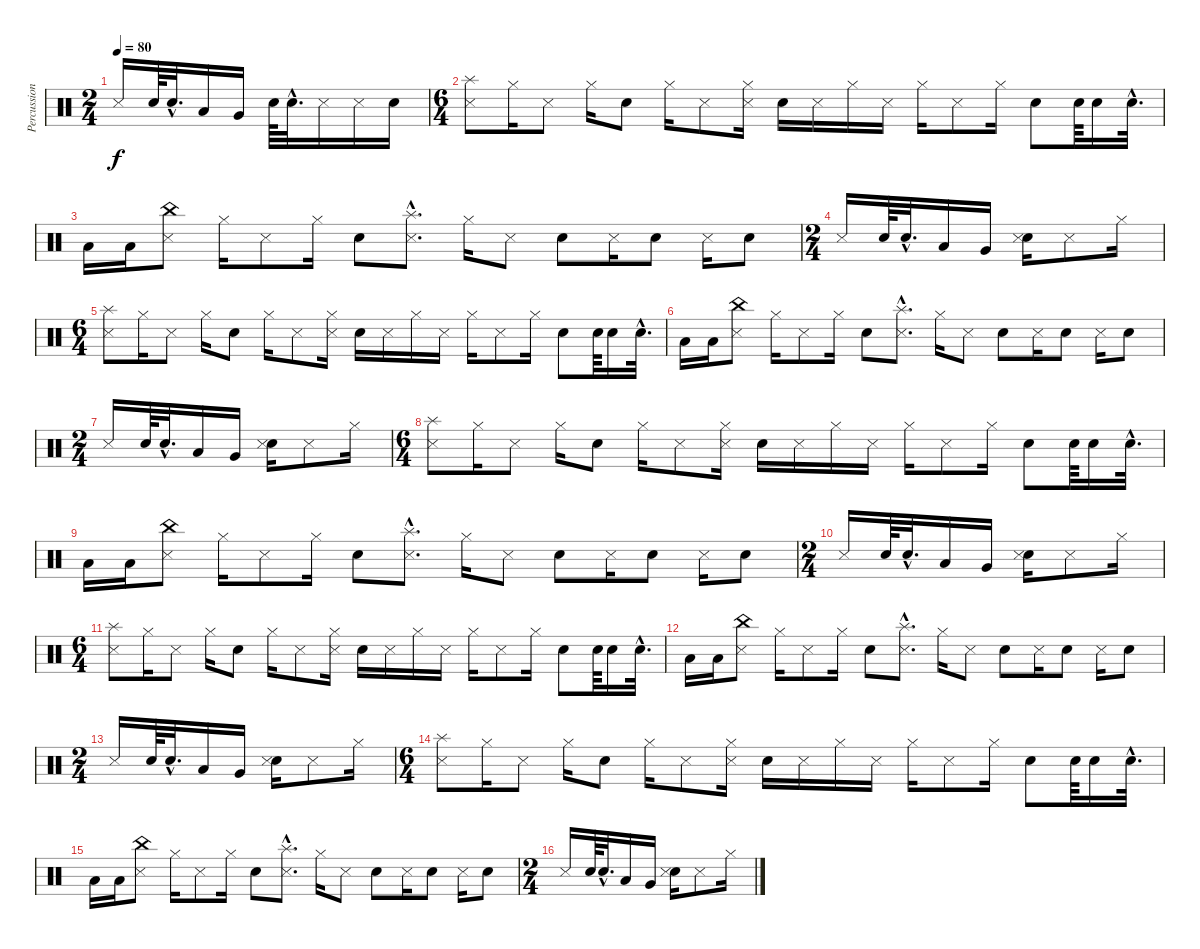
\track ("Percussions" "Percussion") {instrument percussion}
\staff {score}
\articulation defaults
\ts (2 4)
\tempo 80
\clef neutral
\ks c "Metronome (hit)".16{dy f} "Snare (hit) 2".64 "Snare (hit) 2"{hac}.32{d} "Low Floor Tom (hit)".16 "Very Low Tom (hit)".16 "Snare (hit) 2".64 "Snare (hit) 2"{hac}.32{d} "Metronome (hit)".16 "Metronome (hit)".16 "Snare (hit) 2".16
|
\ts (6 4)
("Splash (hit)" "Metronome (hit)").8 "Hi-Hat (closed)".16 "Metronome (hit)".8 "Hi-Hat (closed)".16 "Snare (hit) 2".8 "Hi-Hat (closed)".16 "Metronome (hit)".8 ("Hi-Hat (closed)" "Metronome (hit)").16 "Snare (hit) 2".16 "Metronome (hit)".16 "Hi-Hat (closed)".16 "Metronome (hit)".16 "Hi-Hat (closed)".16 "Metronome (hit)".8 "Hi-Hat (closed)".16 "Snare (hit) 2".8 "Snare (hit) 2".64 "Snare (hit) 2".16 "Snare (hit) 2"{hac}.32{d} |
"Low Floor Tom (hit)".16 "Low Floor Tom (hit)".16 ("China (hit)" "Metronome (hit)").8 "Hi-Hat (closed)".16 "Metronome (hit)".8 "Hi-Hat (closed)".16 "Snare (hit) 2".8 ("Splash (hit)"{hac} "Metronome (hit)"{hac}).8{d} "Hi-Hat (closed)".16 "Metronome (hit)".8 "Snare (hit) 2".8 "Metronome (hit)".16 "Snare (hit) 2".8 "Metronome (hit)".16 "Snare (hit) 2".8 |
\ts (2 4)
"Metronome (hit)".16 "Snare (hit) 2".64 "Snare (hit) 2"{hac}.32{d} "Low Floor Tom (hit)".16 "Very Low Tom (hit)".16 ("Snare (hit) 2" "Metronome (hit)").16 "Metronome (hit)".8 "Hi-Hat (closed)".16 |
\ts (6 4)
("Splash (hit)" "Metronome (hit)").8 "Hi-Hat (closed)".16 "Metronome (hit)".8 "Hi-Hat (closed)".16 "Snare (hit) 2".8 "Hi-Hat (closed)".16 "Metronome (hit)".8 ("Hi-Hat (closed)" "Metronome (hit)").16 "Snare (hit) 2".16 "Metronome (hit)".16 "Hi-Hat (closed)".16 "Metronome (hit)".16 "Hi-Hat (closed)".16 "Metronome (hit)".8 "Hi-Hat (closed)".16 "Snare (hit) 2".8 "Snare (hit) 2".64 "Snare (hit) 2".16 "Snare (hit) 2"{hac}.32{d} |
"Low Floor Tom (hit)".16 "Low Floor Tom (hit)".16 ("China (hit)" "Metronome (hit)").8 "Hi-Hat (closed)".16 "Metronome (hit)".8 "Hi-Hat (closed)".16 "Snare (hit) 2".8 ("Splash (hit)"{hac} "Metronome (hit)"{hac}).8{d} "Hi-Hat (closed)".16 "Metronome (hit)".8 "Snare (hit) 2".8 "Metronome (hit)".16 "Snare (hit) 2".8 "Metronome (hit)".16 "Snare (hit) 2".8 |
\ts (2 4)
"Metronome (hit)".16 "Snare (hit) 2".64 "Snare (hit) 2"{hac}.32{d} "Low Floor Tom (hit)".16 "Very Low Tom (hit)".16 ("Snare (hit) 2" "Metronome (hit)").16 "Metronome (hit)".8 "Hi-Hat (closed)".16 |
\ts (6 4)
("Splash (hit)" "Metronome (hit)").8 "Hi-Hat (closed)".16 "Metronome (hit)".8 "Hi-Hat (closed)".16 "Snare (hit) 2".8 "Hi-Hat (closed)".16 "Metronome (hit)".8 ("Hi-Hat (closed)" "Metronome (hit)").16 "Snare (hit) 2".16 "Metronome (hit)".16 "Hi-Hat (closed)".16 "Metronome (hit)".16 "Hi-Hat (closed)".16 "Metronome (hit)".8 "Hi-Hat (closed)".16 "Snare (hit) 2".8 "Snare (hit) 2".64 "Snare (hit) 2".16 "Snare (hit) 2"{hac}.32{d} |
"Low Floor Tom (hit)".16 "Low Floor Tom (hit)".16 ("China (hit)" "Metronome (hit)").8 "Hi-Hat (closed)".16 "Metronome (hit)".8 "Hi-Hat (closed)".16 "Snare (hit) 2".8 ("Splash (hit)"{hac} "Metronome (hit)"{hac}).8{d} "Hi-Hat (closed)".16 "Metronome (hit)".8 "Snare (hit) 2".8 "Metronome (hit)".16 "Snare (hit) 2".8 "Metronome (hit)".16 "Snare (hit) 2".8 |
\ts (2 4)
"Metronome (hit)".16 "Snare (hit) 2".64 "Snare (hit) 2"{hac}.32{d} "Low Floor Tom (hit)".16 "Very Low Tom (hit)".16 ("Snare (hit) 2" "Metronome (hit)").16 "Metronome (hit)".8 "Hi-Hat (closed)".16 |
\ts (6 4)
("Splash (hit)" "Metronome (hit)").8 "Hi-Hat (closed)".16 "Metronome (hit)".8 "Hi-Hat (closed)".16 "Snare (hit) 2".8 "Hi-Hat (closed)".16 "Metronome (hit)".8 ("Hi-Hat (closed)" "Metronome (hit)").16 "Snare (hit) 2".16 "Metronome (hit)".16 "Hi-Hat (closed)".16 "Metronome (hit)".16 "Hi-Hat (closed)".16 "Metronome (hit)".8 "Hi-Hat (closed)".16 "Snare (hit) 2".8 "Snare (hit) 2".64 "Snare (hit) 2".16 "Snare (hit) 2"{hac}.32{d} |
"Low Floor Tom (hit)".16 "Low Floor Tom (hit)".16 ("China (hit)" "Metronome (hit)").8 "Hi-Hat (closed)".16 "Metronome (hit)".8 "Hi-Hat (closed)".16 "Snare (hit) 2".8 ("Splash (hit)"{hac} "Metronome (hit)"{hac}).8{d} "Hi-Hat (closed)".16 "Metronome (hit)".8 "Snare (hit) 2".8 "Metronome (hit)".16 "Snare (hit) 2".8 "Metronome (hit)".16 "Snare (hit) 2".8 |
\ts (2 4)
"Metronome (hit)".16 "Snare (hit) 2".64 "Snare (hit) 2"{hac}.32{d} "Low Floor Tom (hit)".16 "Very Low Tom (hit)".16 ("Snare (hit) 2" "Metronome (hit)").16 "Metronome (hit)".8 "Hi-Hat (closed)".16 |
\ts (6 4)
("Splash (hit)" "Metronome (hit)").8 "Hi-Hat (closed)".16 "Metronome (hit)".8 "Hi-Hat (closed)".16 "Snare (hit) 2".8 "Hi-Hat (closed)".16 "Metronome (hit)".8 ("Hi-Hat (closed)" "Metronome (hit)").16 "Snare (hit) 2".16 "Metronome (hit)".16 "Hi-Hat (closed)".16 "Metronome (hit)".16 "Hi-Hat (closed)".16 "Metronome (hit)".8 "Hi-Hat (closed)".16 "Snare (hit) 2".8 "Snare (hit) 2".64 "Snare (hit) 2".16 "Snare (hit) 2"{hac}.32{d} |
"Low Floor Tom (hit)".16 "Low Floor Tom (hit)".16 ("China (hit)" "Metronome (hit)").8 "Hi-Hat (closed)".16 "Metronome (hit)".8 "Hi-Hat (closed)".16 "Snare (hit) 2".8 ("Splash (hit)"{hac} "Metronome (hit)"{hac}).8{d} "Hi-Hat (closed)".16 "Metronome (hit)".8 "Snare (hit) 2".8 "Metronome (hit)".16 "Snare (hit) 2".8 "Metronome (hit)".16 "Snare (hit) 2".8 |
\ts (2 4)
"Metronome (hit)".16 "Snare (hit) 2".64 "Snare (hit) 2"{hac}.32{d} "Low Floor Tom (hit)".16 "Very Low Tom (hit)".16 ("Snare (hit) 2" "Metronome (hit)").16 "Metronome (hit)".8 "Hi-Hat (closed)".16
